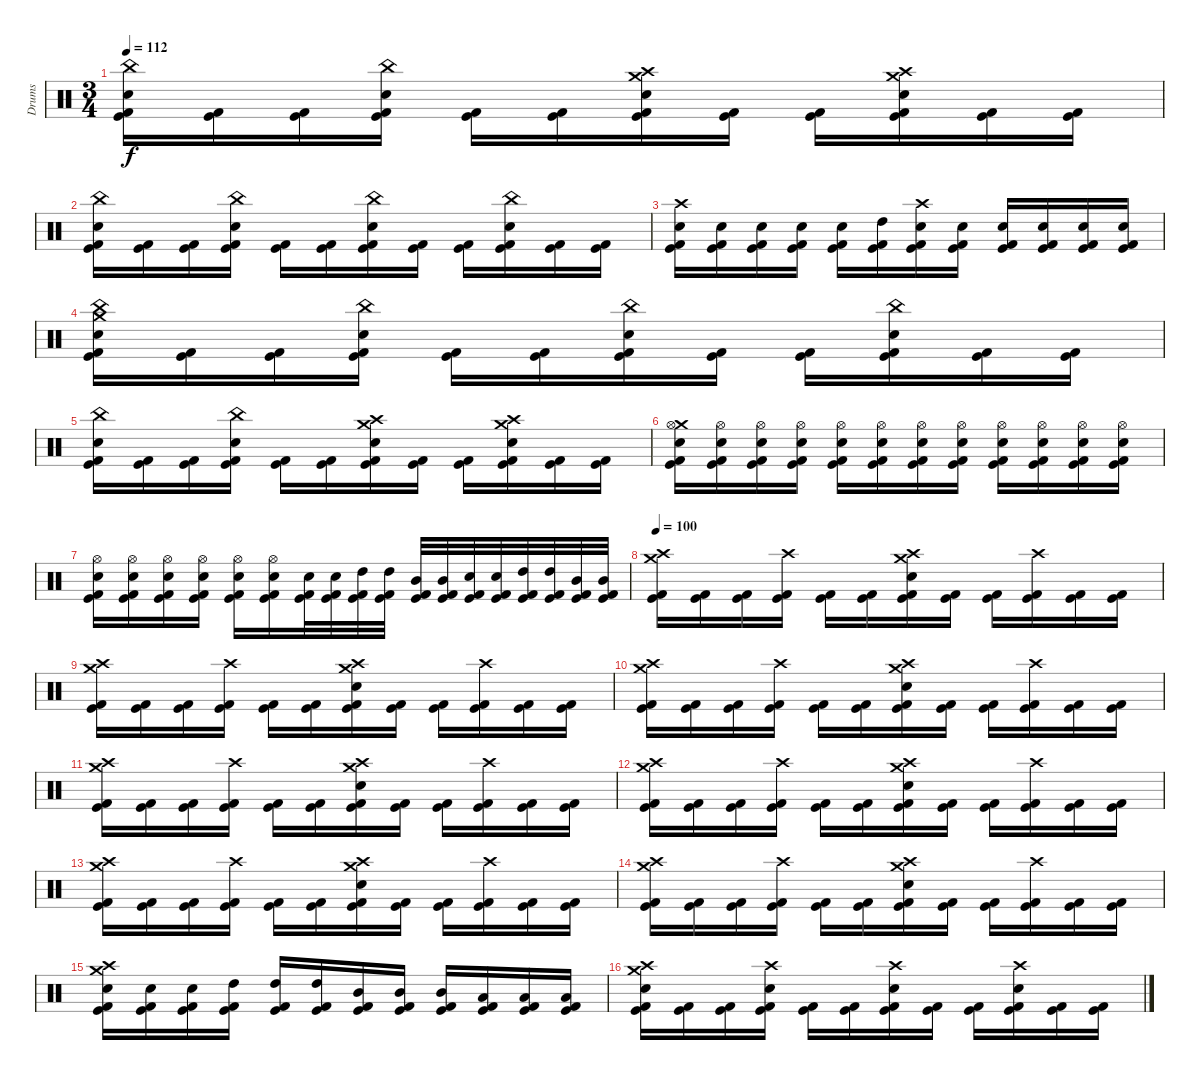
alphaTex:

\track ("Drums" "Drums") {instrument percussion}
\staff {score}
\articulation defaults
\ts (3 4)
\tempo 112
\clef neutral
\ks c
("China (hit)" "Electric Snare (hit)" "Kick (hit)" "Kick (hit) 2").16{dy f} ("Kick (hit)" "Kick (hit) 2").16 ("Kick (hit)" "Kick (hit) 2").16 ("China (hit)" "Electric Snare (hit)" "Kick (hit)" "Kick (hit) 2").16 ("Kick (hit)" "Kick (hit) 2").16 ("Kick (hit)" "Kick (hit) 2").16 ("Crash medium (hit)" "Crash high (hit)" "Electric Snare (hit)" "Kick (hit)" "Kick (hit) 2").16 ("Kick (hit)" "Kick (hit) 2").16 ("Kick (hit)" "Kick (hit) 2").16 ("Crash medium (hit)" "Crash high (hit)" "Electric Snare (hit)" "Kick (hit)" "Kick (hit) 2").16 ("Kick (hit)" "Kick (hit) 2").16 ("Kick (hit)" "Kick (hit) 2").16 |
("China (hit)" "Electric Snare (hit)" "Kick (hit)" "Kick (hit) 2").16 ("Kick (hit)" "Kick (hit) 2").16 ("Kick (hit)" "Kick (hit) 2").16 ("China (hit)" "Electric Snare (hit)" "Kick (hit)" "Kick (hit) 2").16 ("Kick (hit)" "Kick (hit) 2").16 ("Kick (hit)" "Kick (hit) 2").16 ("China (hit)" "Electric Snare (hit)" "Kick (hit)" "Kick (hit) 2").16 ("Kick (hit)" "Kick (hit) 2").16 ("Kick (hit)" "Kick (hit) 2").16 ("China (hit)" "Electric Snare (hit)" "Kick (hit)" "Kick (hit) 2").16 ("Kick (hit)" "Kick (hit) 2").16 ("Kick (hit)" "Kick (hit) 2").16 |
("Crash high (hit)" "Electric Snare (hit)" "Kick (hit)" "Kick (hit) 2").16 ("Electric Snare (hit)" "Kick (hit)" "Kick (hit) 2").16 ("Electric Snare (hit)" "Kick (hit)" "Kick (hit) 2").16 ("Electric Snare (hit)" "Kick (hit)" "Kick (hit) 2").16 ("Electric Snare (hit)" "Kick (hit)" "Kick (hit) 2").16 ("High Tom (hit)" "Kick (hit)" "Kick (hit) 2").16 ("Crash high (hit)" "Electric Snare (hit)" "Kick (hit)" "Kick (hit) 2").16 ("Electric Snare (hit)" "Kick (hit)" "Kick (hit) 2").16 ("Electric Snare (hit)" "Kick (hit)" "Kick (hit) 2").16 ("Electric Snare (hit)" "Kick (hit)" "Kick (hit) 2").16 ("Electric Snare (hit)" "Kick (hit)" "Kick (hit) 2").16 ("Electric Snare (hit)" "Kick (hit)" "Kick (hit) 2").16 |
("Crash medium (hit)" "China (hit)" "Electric Snare (hit)" "Kick (hit)" "Kick (hit) 2").16 ("Kick (hit)" "Kick (hit) 2").16 ("Kick (hit)" "Kick (hit) 2").16 ("China (hit)" "Electric Snare (hit)" "Kick (hit)" "Kick (hit) 2").16 ("Kick (hit)" "Kick (hit) 2").16 ("Kick (hit)" "Kick (hit) 2").16 ("China (hit)" "Electric Snare (hit)" "Kick (hit)" "Kick (hit) 2").16 ("Kick (hit)" "Kick (hit) 2").16 ("Kick (hit)" "Kick (hit) 2").16 ("China (hit)" "Electric Snare (hit)" "Kick (hit)" "Kick (hit) 2").16 ("Kick (hit)" "Kick (hit) 2").16 ("Kick (hit)" "Kick (hit) 2").16 |
("China (hit)" "Electric Snare (hit)" "Kick (hit)" "Kick (hit) 2").16 ("Kick (hit)" "Kick (hit) 2").16 ("Kick (hit)" "Kick (hit) 2").16 ("China (hit)" "Electric Snare (hit)" "Kick (hit)" "Kick (hit) 2").16 ("Kick (hit)" "Kick (hit) 2").16 ("Kick (hit)" "Kick (hit) 2").16 ("Crash medium (hit)" "Crash high (hit)" "Electric Snare (hit)" "Kick (hit)" "Kick (hit) 2").16 ("Kick (hit)" "Kick (hit) 2").16 ("Kick (hit)" "Kick (hit) 2").16 ("Crash medium (hit)" "Crash high (hit)" "Electric Snare (hit)" "Kick (hit)" "Kick (hit) 2").16 ("Kick (hit)" "Kick (hit) 2").16 ("Kick (hit)" "Kick (hit) 2").16 |
("Crash medium (hit)" "Hi-Hat (open)" "Electric Snare (hit)" "Kick (hit)" "Kick (hit) 2").16 ("Hi-Hat (open)" "Electric Snare (hit)" "Kick (hit)" "Kick (hit) 2").16 ("Hi-Hat (open)" "Electric Snare (hit)" "Kick (hit)" "Kick (hit) 2").16 ("Hi-Hat (open)" "Electric Snare (hit)" "Kick (hit)" "Kick (hit) 2").16 ("Hi-Hat (open)" "Electric Snare (hit)" "Kick (hit)" "Kick (hit) 2").16 ("Hi-Hat (open)" "Electric Snare (hit)" "Kick (hit)" "Kick (hit) 2").16 ("Hi-Hat (open)" "Electric Snare (hit)" "Kick (hit)" "Kick (hit) 2").16 ("Hi-Hat (open)" "Electric Snare (hit)" "Kick (hit)" "Kick (hit) 2").16 ("Hi-Hat (open)" "Electric Snare (hit)" "Kick (hit)" "Kick (hit) 2").16 ("Hi-Hat (open)" "Electric Snare (hit)" "Kick (hit)" "Kick (hit) 2").16 ("Hi-Hat (open)" "Electric Snare (hit)" "Kick (hit)" "Kick (hit) 2").16 ("Hi-Hat (open)" "Electric Snare (hit)" "Kick (hit)" "Kick (hit) 2").16 |
("Hi-Hat (open)" "Electric Snare (hit)" "Kick (hit)" "Kick (hit) 2").16 ("Hi-Hat (open)" "Electric Snare (hit)" "Kick (hit)" "Kick (hit) 2").16 ("Hi-Hat (open)" "Electric Snare (hit)" "Kick (hit)" "Kick (hit) 2").16 ("Hi-Hat (open)" "Electric Snare (hit)" "Kick (hit)" "Kick (hit) 2").16 ("Hi-Hat (open)" "Electric Snare (hit)" "Kick (hit)" "Kick (hit) 2").16 ("Hi-Hat (open)" "Electric Snare (hit)" "Kick (hit)" "Kick (hit) 2").16 ("Electric Snare (hit)" "Kick (hit)" "Kick (hit) 2").32 ("Electric Snare (hit)" "Kick (hit)" "Kick (hit) 2").32 ("High Tom (hit)" "Kick (hit)" "Kick (hit) 2").32 ("High Tom (hit)" "Kick (hit)" "Kick (hit) 2").32 ("Mid Tom (hit)" "Kick (hit)" "Kick (hit) 2").32 ("Mid Tom (hit)" "Kick (hit)" "Kick (hit) 2").32 ("Electric Snare (hit)" "Kick (hit)" "Kick (hit) 2").32 ("Electric Snare (hit)" "Kick (hit)" "Kick (hit) 2").32 ("High Tom (hit)" "Kick (hit)" "Kick (hit) 2").32 ("High Tom (hit)" "Kick (hit)" "Kick (hit) 2").32 ("Mid Tom (hit)" "Kick (hit)" "Kick (hit) 2").32 ("Mid Tom (hit)" "Kick (hit)" "Kick (hit) 2").32 |
\tempo 100
("Crash medium (hit)" "Crash high (hit)" "Kick (hit)" "Kick (hit) 2").16 ("Kick (hit)" "Kick (hit) 2").16 ("Kick (hit)" "Kick (hit) 2").16 ("Crash high (hit)" "Kick (hit)" "Kick (hit) 2").16 ("Kick (hit)" "Kick (hit) 2").16 ("Kick (hit)" "Kick (hit) 2").16 ("Crash medium (hit)" "Crash high (hit)" "Electric Snare (hit)" "Kick (hit)" "Kick (hit) 2").16 ("Kick (hit)" "Kick (hit) 2").16 ("Kick (hit)" "Kick (hit) 2").16 ("Crash high (hit)" "Kick (hit)" "Kick (hit) 2").16 ("Kick (hit)" "Kick (hit) 2").16 ("Kick (hit)" "Kick (hit) 2").16 |
("Crash medium (hit)" "Crash high (hit)" "Kick (hit)" "Kick (hit) 2").16 ("Kick (hit)" "Kick (hit) 2").16 ("Kick (hit)" "Kick (hit) 2").16 ("Crash high (hit)" "Kick (hit)" "Kick (hit) 2").16 ("Kick (hit)" "Kick (hit) 2").16 ("Kick (hit)" "Kick (hit) 2").16 ("Crash medium (hit)" "Crash high (hit)" "Electric Snare (hit)" "Kick (hit)" "Kick (hit) 2").16 ("Kick (hit)" "Kick (hit) 2").16 ("Kick (hit)" "Kick (hit) 2").16 ("Crash high (hit)" "Kick (hit)" "Kick (hit) 2").16 ("Kick (hit)" "Kick (hit) 2").16 ("Kick (hit)" "Kick (hit) 2").16 |
("Crash medium (hit)" "Crash high (hit)" "Kick (hit)" "Kick (hit) 2").16 ("Kick (hit)" "Kick (hit) 2").16 ("Kick (hit)" "Kick (hit) 2").16 ("Crash high (hit)" "Kick (hit)" "Kick (hit) 2").16 ("Kick (hit)" "Kick (hit) 2").16 ("Kick (hit)" "Kick (hit) 2").16 ("Crash medium (hit)" "Crash high (hit)" "Electric Snare (hit)" "Kick (hit)" "Kick (hit) 2").16 ("Kick (hit)" "Kick (hit) 2").16 ("Kick (hit)" "Kick (hit) 2").16 ("Crash high (hit)" "Kick (hit)" "Kick (hit) 2").16 ("Kick (hit)" "Kick (hit) 2").16 ("Kick (hit)" "Kick (hit) 2").16 |
("Crash medium (hit)" "Crash high (hit)" "Kick (hit)" "Kick (hit) 2").16 ("Kick (hit)" "Kick (hit) 2").16 ("Kick (hit)" "Kick (hit) 2").16 ("Crash high (hit)" "Kick (hit)" "Kick (hit) 2").16 ("Kick (hit)" "Kick (hit) 2").16 ("Kick (hit)" "Kick (hit) 2").16 ("Crash medium (hit)" "Crash high (hit)" "Electric Snare (hit)" "Kick (hit)" "Kick (hit) 2").16 ("Kick (hit)" "Kick (hit) 2").16 ("Kick (hit)" "Kick (hit) 2").16 ("Crash high (hit)" "Kick (hit)" "Kick (hit) 2").16 ("Kick (hit)" "Kick (hit) 2").16 ("Kick (hit)" "Kick (hit) 2").16 |
("Crash medium (hit)" "Crash high (hit)" "Kick (hit)" "Kick (hit) 2").16 ("Kick (hit)" "Kick (hit) 2").16 ("Kick (hit)" "Kick (hit) 2").16 ("Crash high (hit)" "Kick (hit)" "Kick (hit) 2").16 ("Kick (hit)" "Kick (hit) 2").16 ("Kick (hit)" "Kick (hit) 2").16 ("Crash medium (hit)" "Crash high (hit)" "Electric Snare (hit)" "Kick (hit)" "Kick (hit) 2").16 ("Kick (hit)" "Kick (hit) 2").16 ("Kick (hit)" "Kick (hit) 2").16 ("Crash high (hit)" "Kick (hit)" "Kick (hit) 2").16 ("Kick (hit)" "Kick (hit) 2").16 ("Kick (hit)" "Kick (hit) 2").16 |
("Crash medium (hit)" "Crash high (hit)" "Kick (hit)" "Kick (hit) 2").16 ("Kick (hit)" "Kick (hit) 2").16 ("Kick (hit)" "Kick (hit) 2").16 ("Crash high (hit)" "Kick (hit)" "Kick (hit) 2").16 ("Kick (hit)" "Kick (hit) 2").16 ("Kick (hit)" "Kick (hit) 2").16 ("Crash medium (hit)" "Crash high (hit)" "Electric Snare (hit)" "Kick (hit)" "Kick (hit) 2").16 ("Kick (hit)" "Kick (hit) 2").16 ("Kick (hit)" "Kick (hit) 2").16 ("Crash high (hit)" "Kick (hit)" "Kick (hit) 2").16 ("Kick (hit)" "Kick (hit) 2").16 ("Kick (hit)" "Kick (hit) 2").16 |
("Crash medium (hit)" "Crash high (hit)" "Kick (hit)" "Kick (hit) 2").16 ("Kick (hit)" "Kick (hit) 2").16 ("Kick (hit)" "Kick (hit) 2").16 ("Crash high (hit)" "Kick (hit)" "Kick (hit) 2").16 ("Kick (hit)" "Kick (hit) 2").16 ("Kick (hit)" "Kick (hit) 2").16 ("Crash medium (hit)" "Crash high (hit)" "Electric Snare (hit)" "Kick (hit)" "Kick (hit) 2").16 ("Kick (hit)" "Kick (hit) 2").16 ("Kick (hit)" "Kick (hit) 2").16 ("Crash high (hit)" "Kick (hit)" "Kick (hit) 2").16 ("Kick (hit)" "Kick (hit) 2").16 ("Kick (hit)" "Kick (hit) 2").16 |
("Crash medium (hit)" "Crash high (hit)" "Electric Snare (hit)" "Kick (hit)" "Kick (hit) 2").16 ("Electric Snare (hit)" "Kick (hit)" "Kick (hit) 2").16 ("Electric Snare (hit)" "Kick (hit)" "Kick (hit) 2").16 ("High Tom (hit)" "Kick (hit)" "Kick (hit) 2").16 ("High Tom (hit)" "Kick (hit)" "Kick (hit) 2").16 ("High Tom (hit)" "Kick (hit)" "Kick (hit) 2").16 ("Mid Tom (hit)" "Kick (hit)" "Kick (hit) 2").16 ("Mid Tom (hit)" "Kick (hit)" "Kick (hit) 2").16 ("Mid Tom (hit)" "Kick (hit)" "Kick (hit) 2").16 ("Low Tom (hit)" "Kick (hit)" "Kick (hit) 2").16 ("Low Tom (hit)" "Kick (hit)" "Kick (hit) 2").16 ("Low Tom (hit)" "Kick (hit)" "Kick (hit) 2").16 |
("Crash medium (hit)" "Crash high (hit)" "Electric Snare (hit)" "Kick (hit)" "Kick (hit) 2").16 ("Kick (hit)" "Kick (hit) 2").16 ("Kick (hit)" "Kick (hit) 2").16 ("Crash high (hit)" "Electric Snare (hit)" "Kick (hit)" "Kick (hit) 2").16 ("Kick (hit)" "Kick (hit) 2").16 ("Kick (hit)" "Kick (hit) 2").16 ("Crash high (hit)" "Electric Snare (hit)" "Kick (hit)" "Kick (hit) 2").16 ("Kick (hit)" "Kick (hit) 2").16 ("Kick (hit)" "Kick (hit) 2").16 ("Crash high (hit)" "Electric Snare (hit)" "Kick (hit)" "Kick (hit) 2").16 ("Kick (hit)" "Kick (hit) 2").16 ("Kick (hit)" "Kick (hit) 2").16
